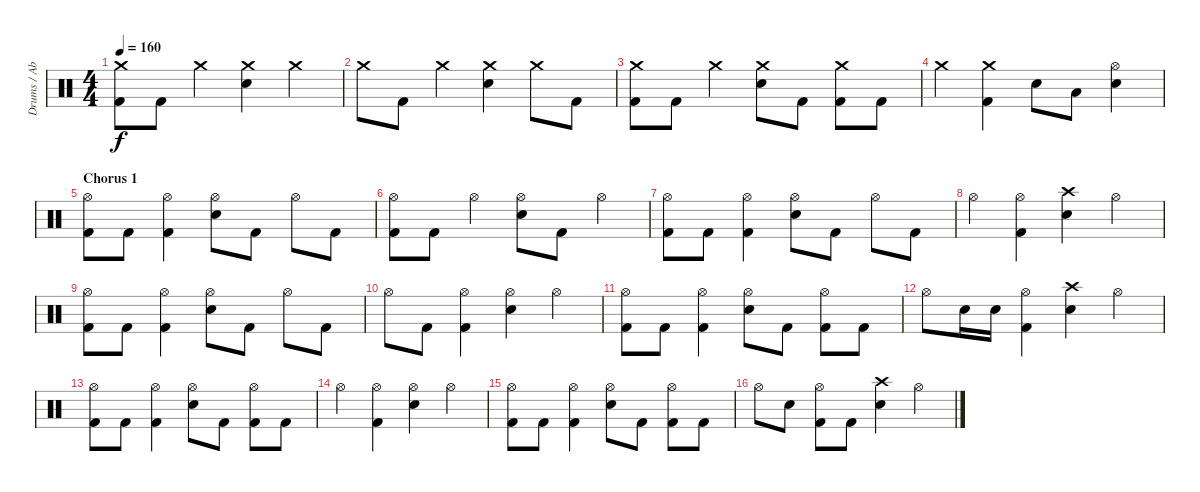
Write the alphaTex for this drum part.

\track ("Drums / Abe Cunningham" "Drums / Ab") {instrument percussion}
\staff {score}
\articulation defaults
\ts (4 4)
\tempo 160
\clef neutral
\ks c
("Crash medium (hit)" "Kick (hit) 2").8{dy f} "Kick (hit) 2".8 "Crash medium (hit)".4 ("Crash medium (hit)" "Electric Snare (hit)").4 "Crash medium (hit)".4 |
"Crash medium (hit)".8 "Kick (hit) 2".8 "Crash medium (hit)".4 ("Crash medium (hit)" "Electric Snare (hit)").4 "Crash medium (hit)".8 "Kick (hit) 2".8 |
("Crash medium (hit)" "Kick (hit) 2").8 "Kick (hit) 2".8 "Crash medium (hit)".4 ("Crash medium (hit)" "Electric Snare (hit)").8 "Kick (hit) 2".8 ("Crash medium (hit)" "Kick (hit) 2").8 "Kick (hit) 2".8 |
"Crash medium (hit)".4 ("Crash medium (hit)" "Kick (hit) 2").4 "Electric Snare (hit)".8 "Low Tom (hit)".8 ("Hi-Hat (open)" "Electric Snare (hit)").4 |
\section ("" "Chorus 1")
("Hi-Hat (open)" "Kick (hit) 2").8 "Kick (hit) 2".8 ("Hi-Hat (open)" "Kick (hit) 2").4 ("Hi-Hat (open)" "Electric Snare (hit)").8 "Kick (hit) 2".8 "Hi-Hat (open)".8 "Kick (hit) 2".8 |
("Hi-Hat (open)" "Kick (hit) 2").8 "Kick (hit) 2".8 "Hi-Hat (open)".4 ("Hi-Hat (open)" "Electric Snare (hit)").8 "Kick (hit) 2".8 "Hi-Hat (open)".4 |
("Hi-Hat (open)" "Kick (hit) 2").8 "Kick (hit) 2".8 ("Hi-Hat (open)" "Kick (hit) 2").4 ("Hi-Hat (open)" "Electric Snare (hit)").8 "Kick (hit) 2".8 "Hi-Hat (open)".8 "Kick (hit) 2".8 |
"Hi-Hat (open)".4 ("Hi-Hat (open)" "Kick (hit) 2").4 ("Crash high (hit)" "Electric Snare (hit)").4 "Hi-Hat (open)".4 |
("Hi-Hat (open)" "Kick (hit) 2").8 "Kick (hit) 2".8 ("Hi-Hat (open)" "Kick (hit) 2").4 ("Hi-Hat (open)" "Electric Snare (hit)").8 "Kick (hit) 2".8 "Hi-Hat (open)".8 "Kick (hit) 2".8 |
"Hi-Hat (open)".8 "Kick (hit) 2".8 ("Hi-Hat (open)" "Kick (hit) 2").4 ("Hi-Hat (open)" "Electric Snare (hit)").4 "Hi-Hat (open)".4 |
("Hi-Hat (open)" "Kick (hit) 2").8 "Kick (hit) 2".8 ("Hi-Hat (open)" "Kick (hit) 2").4 ("Hi-Hat (open)" "Electric Snare (hit)").8 "Kick (hit) 2".8 ("Hi-Hat (open)" "Kick (hit) 2").8 "Kick (hit) 2".8 |
"Hi-Hat (open)".8 "Electric Snare (hit)".16 "Electric Snare (hit)".16 ("Hi-Hat (open)" "Kick (hit) 2").4 ("Crash high (hit)" "Electric Snare (hit)").4 "Hi-Hat (open)".4 |
("Hi-Hat (open)" "Kick (hit) 2").8 "Kick (hit) 2".8 ("Hi-Hat (open)" "Kick (hit) 2").4 ("Hi-Hat (open)" "Electric Snare (hit)").8 "Kick (hit) 2".8 ("Hi-Hat (open)" "Kick (hit) 2").8 "Kick (hit) 2".8 |
"Hi-Hat (open)".4 ("Hi-Hat (open)" "Kick (hit) 2").4 ("Hi-Hat (open)" "Electric Snare (hit)").4 "Hi-Hat (open)".4 |
("Hi-Hat (open)" "Kick (hit) 2").8 "Kick (hit) 2".8 ("Hi-Hat (open)" "Kick (hit) 2").4 ("Hi-Hat (open)" "Electric Snare (hit)").8 "Kick (hit) 2".8 ("Hi-Hat (open)" "Kick (hit) 2").8 "Kick (hit) 2".8 |
"Hi-Hat (open)".8 "Electric Snare (hit)".8 ("Hi-Hat (open)" "Kick (hit) 2").8 "Kick (hit) 2".8 ("Crash high (hit)" "Electric Snare (hit)").4 "Hi-Hat (open)".4
